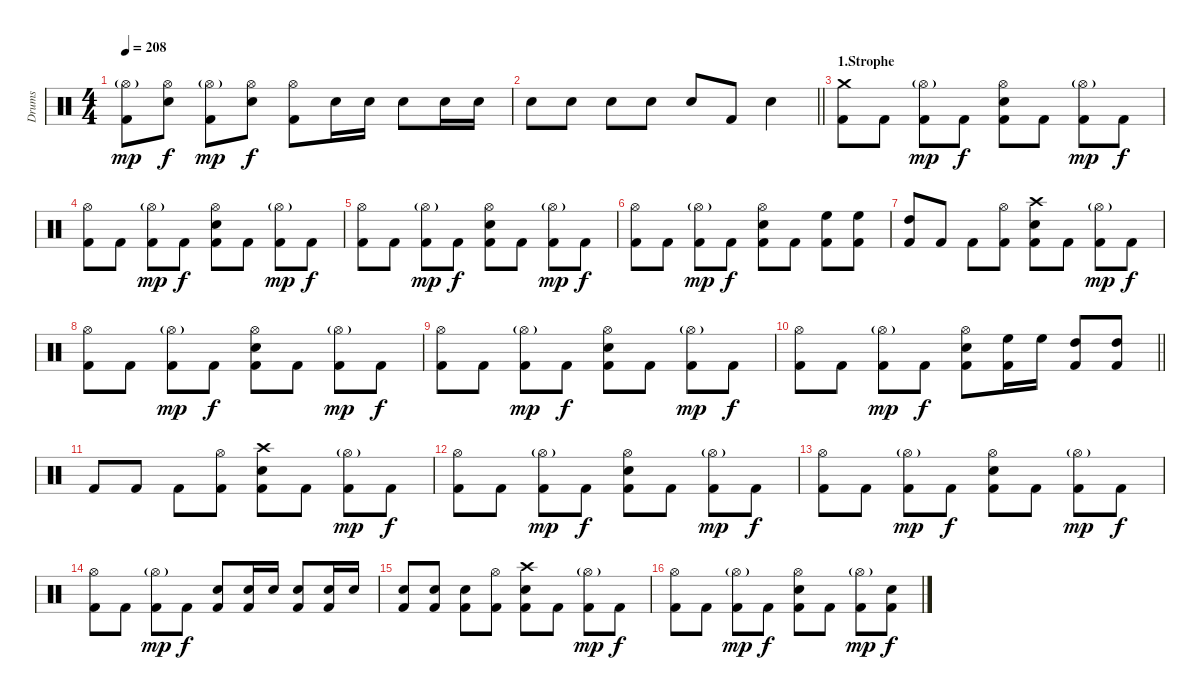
\track ("Drums" "Drums") {instrument percussion}
\staff
\articulation defaults
\ts (4 4)
\tempo 208
\clef neutral
\ks c
("Hi-Hat (open)"{g} "Kick (hit) 2").8{dy mp} ("Hi-Hat (open)" "Electric Snare (hit)").8{dy f} ("Hi-Hat (open)"{g} "Kick (hit) 2").8{dy mp} ("Hi-Hat (open)" "Electric Snare (hit)").8{dy f} ("Hi-Hat (open)" "Kick (hit) 2").8 "Electric Snare (hit)".16 "Electric Snare (hit)".16 "Electric Snare (hit)".8 "Electric Snare (hit)".16 "Electric Snare (hit)".16 |
\barLineRight lightlight "Electric Snare (hit)".8 "Electric Snare (hit)".8 "Electric Snare (hit)".8 "Electric Snare (hit)".8 "Electric Snare (hit)".8 "Kick (hit) 2".8 "Electric Snare (hit)".4
|
\section ("" "1.Strophe")
("Crash medium (hit)" "Kick (hit) 2").8 "Kick (hit) 2".8 ("Hi-Hat (open)"{g} "Kick (hit) 2").8{dy mp} "Kick (hit) 2".8{dy f} ("Hi-Hat (open)" "Electric Snare (hit)" "Kick (hit) 2").8 "Kick (hit) 2".8 ("Hi-Hat (open)"{g} "Kick (hit) 2").8{dy mp} "Kick (hit) 2".8{dy f} |
("Hi-Hat (open)" "Kick (hit) 2").8 "Kick (hit) 2".8 ("Hi-Hat (open)"{g} "Kick (hit) 2").8{dy mp} "Kick (hit) 2".8{dy f} ("Hi-Hat (open)" "Electric Snare (hit)" "Kick (hit) 2").8 "Kick (hit) 2".8 ("Hi-Hat (open)"{g} "Kick (hit) 2").8{dy mp} "Kick (hit) 2".8{dy f} |
("Hi-Hat (open)" "Kick (hit) 2").8 "Kick (hit) 2".8 ("Hi-Hat (open)"{g} "Kick (hit) 2").8{dy mp} "Kick (hit) 2".8{dy f} ("Hi-Hat (open)" "Electric Snare (hit)" "Kick (hit) 2").8 "Kick (hit) 2".8 ("Hi-Hat (open)"{g} "Kick (hit) 2").8{dy mp} "Kick (hit) 2".8{dy f} |
("Hi-Hat (open)" "Kick (hit) 2").8 "Kick (hit) 2".8 ("Hi-Hat (open)"{g} "Kick (hit) 2").8{dy mp} "Kick (hit) 2".8{dy f} ("Hi-Hat (open)" "Electric Snare (hit)" "Kick (hit) 2").8 "Kick (hit) 2".8 ("High Floor Tom (hit)" "Kick (hit) 2").8 ("High Floor Tom (hit)" "Kick (hit) 2").8 |
("High Tom (hit)" "Kick (hit) 2").8 "Kick (hit) 2".8 "Kick (hit) 2".8 ("Hi-Hat (open)" "Kick (hit) 2").8 ("Crash high (hit)" "Electric Snare (hit)" "Kick (hit) 2").8 "Kick (hit) 2".8 ("Hi-Hat (open)"{g} "Kick (hit) 2").8{dy mp} "Kick (hit) 2".8{dy f} |
("Hi-Hat (open)" "Kick (hit) 2").8 "Kick (hit) 2".8 ("Hi-Hat (open)"{g} "Kick (hit) 2").8{dy mp} "Kick (hit) 2".8{dy f} ("Hi-Hat (open)" "Electric Snare (hit)" "Kick (hit) 2").8 "Kick (hit) 2".8 ("Hi-Hat (open)"{g} "Kick (hit) 2").8{dy mp} "Kick (hit) 2".8{dy f} |
("Hi-Hat (open)" "Kick (hit) 2").8 "Kick (hit) 2".8 ("Hi-Hat (open)"{g} "Kick (hit) 2").8{dy mp} "Kick (hit) 2".8{dy f} ("Hi-Hat (open)" "Electric Snare (hit)" "Kick (hit) 2").8 "Kick (hit) 2".8 ("Hi-Hat (open)"{g} "Kick (hit) 2").8{dy mp} "Kick (hit) 2".8{dy f} |
\barLineRight lightlight
("Hi-Hat (open)" "Kick (hit) 2").8 "Kick (hit) 2".8 ("Hi-Hat (open)"{g} "Kick (hit) 2").8{dy mp} "Kick (hit) 2".8{dy f} ("Hi-Hat (open)" "Electric Snare (hit)" "Kick (hit) 2").8 ("High Floor Tom (hit)" "Kick (hit) 2").16 "High Floor Tom (hit)".16 ("High Tom (hit)" "Kick (hit) 2").8 ("High Tom (hit)" "Kick (hit) 2").8 |
"Kick (hit) 2".8 "Kick (hit) 2".8 "Kick (hit) 2".8 ("Hi-Hat (open)" "Kick (hit) 2").8 ("Crash high (hit)" "Electric Snare (hit)" "Kick (hit) 2").8 "Kick (hit) 2".8 ("Hi-Hat (open)"{g} "Kick (hit) 2").8{dy mp} "Kick (hit) 2".8{dy f} |
("Hi-Hat (open)" "Kick (hit) 2").8 "Kick (hit) 2".8 ("Hi-Hat (open)"{g} "Kick (hit) 2").8{dy mp} "Kick (hit) 2".8{dy f} ("Hi-Hat (open)" "Electric Snare (hit)" "Kick (hit) 2").8 "Kick (hit) 2".8 ("Hi-Hat (open)"{g} "Kick (hit) 2").8{dy mp} "Kick (hit) 2".8{dy f} |
("Hi-Hat (open)" "Kick (hit) 2").8 "Kick (hit) 2".8 ("Hi-Hat (open)"{g} "Kick (hit) 2").8{dy mp} "Kick (hit) 2".8{dy f} ("Hi-Hat (open)" "Electric Snare (hit)" "Kick (hit) 2").8 "Kick (hit) 2".8 ("Hi-Hat (open)"{g} "Kick (hit) 2").8{dy mp} "Kick (hit) 2".8{dy f} |
("Hi-Hat (open)" "Kick (hit) 2").8 "Kick (hit) 2".8 ("Hi-Hat (open)"{g} "Kick (hit) 2").8{dy mp} "Kick (hit) 2".8{dy f} ("Electric Snare (hit)" "Kick (hit) 2").8 ("Electric Snare (hit)" "Kick (hit) 2").16 "Electric Snare (hit)".16 ("Electric Snare (hit)" "Kick (hit) 2").8 ("Electric Snare (hit)" "Kick (hit) 2").16 "Electric Snare (hit)".16 |
("Electric Snare (hit)" "Kick (hit) 2").8 ("Electric Snare (hit)" "Kick (hit) 2").8 ("Electric Snare (hit)" "Kick (hit) 2").8 ("Hi-Hat (open)" "Kick (hit) 2").8 ("Crash high (hit)" "Electric Snare (hit)" "Kick (hit) 2").8 "Kick (hit) 2".8 ("Hi-Hat (open)"{g} "Kick (hit) 2").8{dy mp} "Kick (hit) 2".8{dy f} |
("Hi-Hat (open)" "Kick (hit) 2").8 "Kick (hit) 2".8 ("Hi-Hat (open)"{g} "Kick (hit) 2").8{dy mp} "Kick (hit) 2".8{dy f} ("Hi-Hat (open)" "Electric Snare (hit)" "Kick (hit) 2").8 "Kick (hit) 2".8 ("Hi-Hat (open)"{g} "Kick (hit) 2").8{dy mp} ("Electric Snare (hit)" "Kick (hit) 2").8{dy f}
